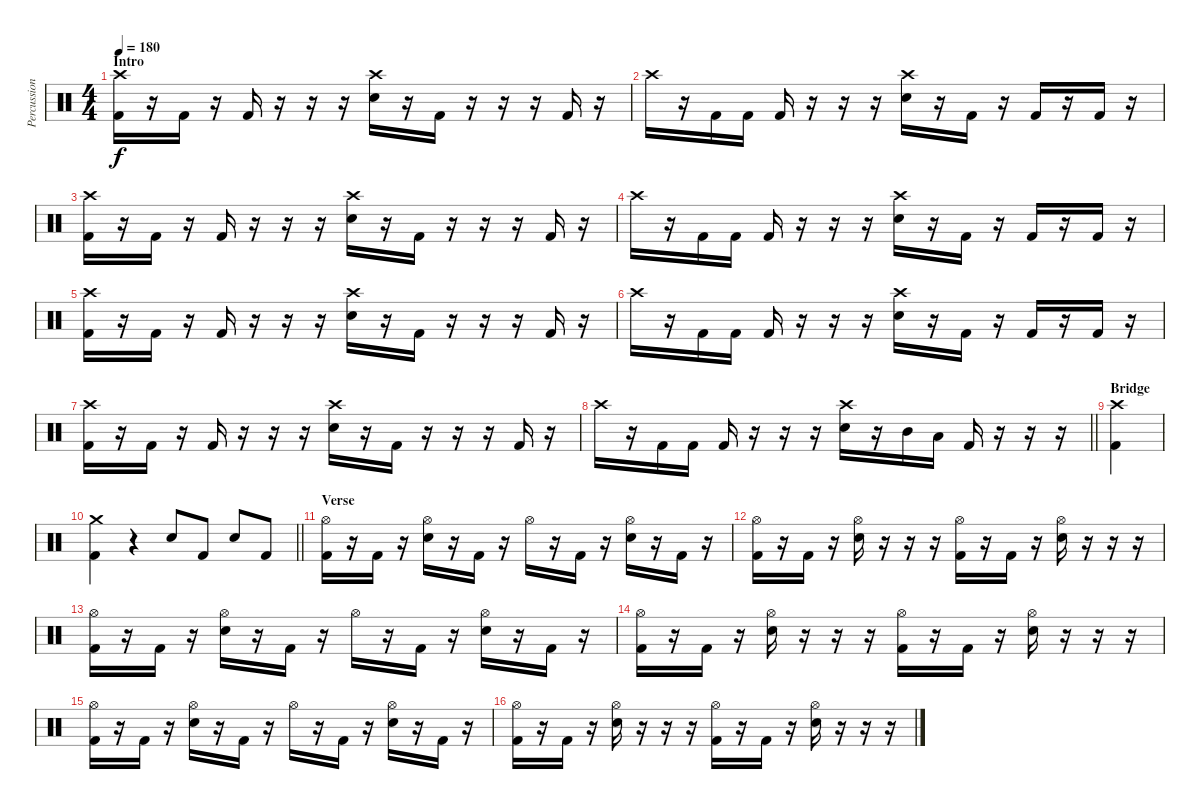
\track ("Percussion" "Percussion") {instrument percussion}
\staff {score}
\articulation defaults
\ts (4 4)
\section ("" "Intro")
\tempo 180
\clef neutral
\ks c
("Crash high (hit)" "Kick (hit) 2").16{dy f} r.16 "Kick (hit) 2".16 r.16 "Kick (hit) 2".16 r.16 r.16 r.16 ("Crash high (hit)" "Electric Snare (hit)").16 r.16 "Kick (hit) 2".16 r.16 r.16 r.16 "Kick (hit) 2".16 r.16 |
"Crash high (hit)".16 r.16 "Kick (hit) 2".16 "Kick (hit) 2".16 "Kick (hit) 2".16 r.16 r.16 r.16 ("Crash high (hit)" "Electric Snare (hit)").16 r.16 "Kick (hit) 2".16 r.16 "Kick (hit) 2".16 r.16 "Kick (hit) 2".16 r.16 |
("Crash high (hit)" "Kick (hit) 2").16 r.16 "Kick (hit) 2".16 r.16 "Kick (hit) 2".16 r.16 r.16 r.16 ("Crash high (hit)" "Electric Snare (hit)").16 r.16 "Kick (hit) 2".16 r.16 r.16 r.16 "Kick (hit) 2".16 r.16 |
"Crash high (hit)".16 r.16 "Kick (hit) 2".16 "Kick (hit) 2".16 "Kick (hit) 2".16 r.16 r.16 r.16 ("Crash high (hit)" "Electric Snare (hit)").16 r.16 "Kick (hit) 2".16 r.16 "Kick (hit) 2".16 r.16 "Kick (hit) 2".16 r.16 |
("Crash high (hit)" "Kick (hit) 2").16 r.16 "Kick (hit) 2".16 r.16 "Kick (hit) 2".16 r.16 r.16 r.16 ("Crash high (hit)" "Electric Snare (hit)").16 r.16 "Kick (hit) 2".16 r.16 r.16 r.16 "Kick (hit) 2".16 r.16 |
"Crash high (hit)".16 r.16 "Kick (hit) 2".16 "Kick (hit) 2".16 "Kick (hit) 2".16 r.16 r.16 r.16 ("Crash high (hit)" "Electric Snare (hit)").16 r.16 "Kick (hit) 2".16 r.16 "Kick (hit) 2".16 r.16 "Kick (hit) 2".16 r.16 |
("Crash high (hit)" "Kick (hit) 2").16 r.16 "Kick (hit) 2".16 r.16 "Kick (hit) 2".16 r.16 r.16 r.16 ("Crash high (hit)" "Electric Snare (hit)").16 r.16 "Kick (hit) 2".16 r.16 r.16 r.16 "Kick (hit) 2".16 r.16 |
\barLineRight lightlight "Crash high (hit)".16
r.16 "Kick (hit) 2".16 "Kick (hit) 2".16 "Kick (hit) 2".16 r.16 r.16 r.16 ("Crash high (hit)" "Electric Snare (hit)").16 r.16 "Mid Tom (hit)".16 "Low Tom (hit)".16 "Kick (hit) 2".16 r.16 r.16 r.16 |
\section ("" "Bridge")
("Crash high (hit)" "Kick (hit) 2").4 |
\barLineRight lightlight
("Crash medium (hit)" "Kick (hit) 2").4 r.4 "Electric Snare (hit)".8 "Kick (hit) 2".8 "Electric Snare (hit)".8 "Kick (hit) 2".8 |
\section ("" "Verse")
("Hi-Hat (open)" "Kick (hit) 2").16 r.16 "Kick (hit) 2".16 r.16 ("Hi-Hat (open)" "Electric Snare (hit)").16 r.16 "Kick (hit) 2".16 r.16 "Hi-Hat (open)".16 r.16 "Kick (hit) 2".16 r.16 ("Hi-Hat (open)" "Electric Snare (hit)").16 r.16 "Kick (hit) 2".16 r.16 |
("Hi-Hat (open)" "Kick (hit) 2").16 r.16 "Kick (hit) 2".16 r.16 ("Hi-Hat (open)" "Electric Snare (hit)").16 r.16 r.16 r.16 ("Hi-Hat (open)" "Kick (hit) 2").16 r.16 "Kick (hit) 2".16 r.16 ("Hi-Hat (open)" "Electric Snare (hit)").16 r.16 r.16 r.16 |
("Hi-Hat (open)" "Kick (hit) 2").16 r.16 "Kick (hit) 2".16 r.16 ("Hi-Hat (open)" "Electric Snare (hit)").16 r.16 "Kick (hit) 2".16 r.16 "Hi-Hat (open)".16 r.16 "Kick (hit) 2".16 r.16 ("Hi-Hat (open)" "Electric Snare (hit)").16 r.16 "Kick (hit) 2".16 r.16 |
("Hi-Hat (open)" "Kick (hit) 2").16 r.16 "Kick (hit) 2".16 r.16 ("Hi-Hat (open)" "Electric Snare (hit)").16 r.16 r.16 r.16 ("Hi-Hat (open)" "Kick (hit) 2").16 r.16 "Kick (hit) 2".16 r.16 ("Hi-Hat (open)" "Electric Snare (hit)").16 r.16 r.16 r.16 |
("Hi-Hat (open)" "Kick (hit) 2").16 r.16 "Kick (hit) 2".16 r.16 ("Hi-Hat (open)" "Electric Snare (hit)").16 r.16 "Kick (hit) 2".16 r.16 "Hi-Hat (open)".16 r.16 "Kick (hit) 2".16 r.16 ("Hi-Hat (open)" "Electric Snare (hit)").16 r.16 "Kick (hit) 2".16 r.16 |
("Hi-Hat (open)" "Kick (hit) 2").16 r.16 "Kick (hit) 2".16 r.16 ("Hi-Hat (open)" "Electric Snare (hit)").16 r.16 r.16 r.16 ("Hi-Hat (open)" "Kick (hit) 2").16 r.16 "Kick (hit) 2".16 r.16 ("Hi-Hat (open)" "Electric Snare (hit)").16 r.16 r.16 r.16
